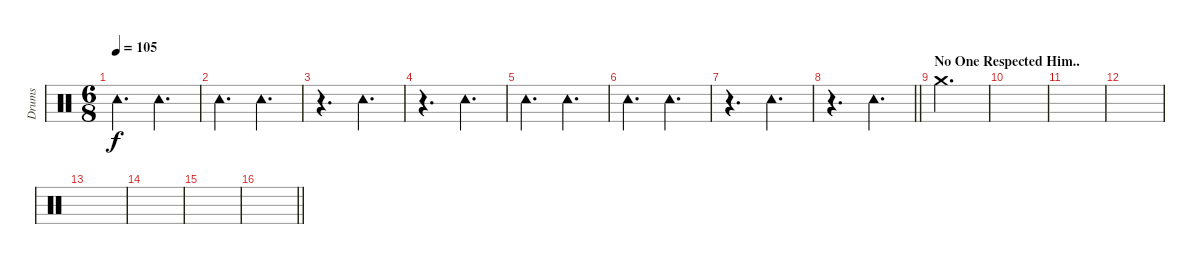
\track ("Drums" "Drums") {instrument percussion}
\staff {score}
\articulation defaults
\ts (6 8)
\tempo 105
\clef neutral
\ks c "Tambourine (hit)".4{d dy f} "Tambourine (hit)".4{d}
|
"Tambourine (hit)".4{d} "Tambourine (hit)".4{d} |
r.4{d} "Tambourine (hit)".4{d} |
r.4{d} "Tambourine (hit)".4{d} |
"Tambourine (hit)".4{d} "Tambourine (hit)".4{d} |
"Tambourine (hit)".4{d} "Tambourine (hit)".4{d} |
r.4{d} "Tambourine (hit)".4{d} |
\barLineRight lightlight
r.4{d} "Tambourine (hit)".4{d} |
\section ("" "No One Respected Him..")
"Crash medium (hit)".2{d} |
|
|
|
|
|
|
\barLineRight lightlight
